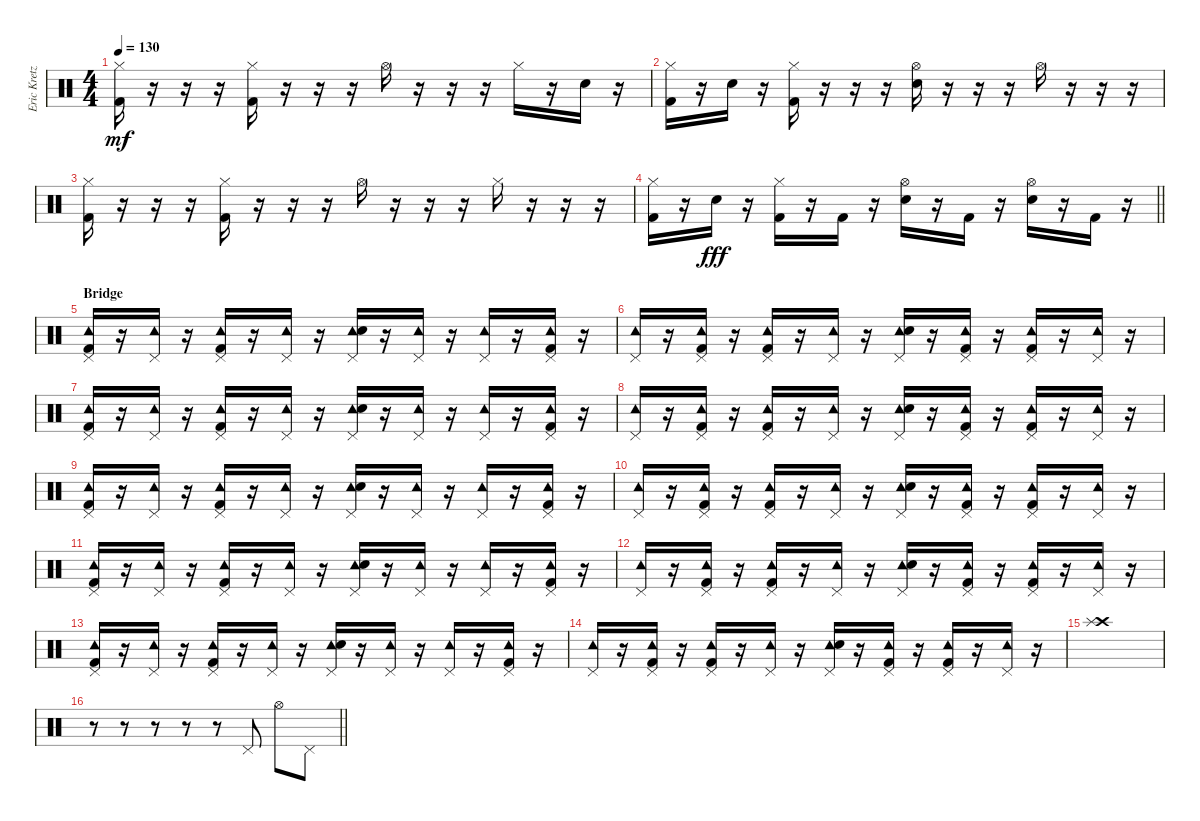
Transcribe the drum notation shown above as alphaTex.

\track ("Eric Kretz (Drums)" "Eric Kretz") {instrument percussion}
\staff {score}
\articulation defaults
\ts (4 4)
\tempo 130
\clef neutral
\ks c
("Hi-Hat (closed)" "Kick (hit) 2").16{dy mf} r.16 r.16 r.16 ("Hi-Hat (closed)" "Kick (hit) 2").16 r.16 r.16 r.16 "Hi-Hat (open)".16 r.16 r.16 r.16 "Hi-Hat (closed)".16 r.16 "Electric Snare (hit)".16 r.16 |
("Hi-Hat (closed)" "Kick (hit) 2").16 r.16 "Electric Snare (hit)".16 r.16 ("Hi-Hat (closed)" "Kick (hit) 2").16 r.16 r.16 r.16 ("Hi-Hat (open)" "Electric Snare (hit)").16 r.16 r.16 r.16 "Hi-Hat (open)".16 r.16 r.16 r.16 |
("Hi-Hat (closed)" "Kick (hit) 2").16 r.16 r.16 r.16 ("Hi-Hat (closed)" "Kick (hit) 2").16 r.16 r.16 r.16 "Hi-Hat (open)".16 r.16 r.16 r.16 "Hi-Hat (closed)".16 r.16 r.16 r.16 |
\barLineRight lightlight
("Hi-Hat (closed)" "Kick (hit) 2").16 r.16 "Electric Snare (hit)".16{dy fff} r.16 ("Hi-Hat (closed)" "Kick (hit) 2").16 r.16 "Kick (hit) 2".16 r.16 ("Hi-Hat (open)" "Electric Snare (hit)").16 r.16 "Kick (hit) 2".16 r.16 ("Hi-Hat (open)" "Electric Snare (hit)").16 r.16 "Kick (hit) 2".16 r.16 |
\section ("" "Bridge ")
("Pedal Hi-Hat (hit)" "Tambourine (hit)" "Kick (hit) 2").16 r.16 ("Pedal Hi-Hat (hit)" "Tambourine (hit)").16 r.16 ("Pedal Hi-Hat (hit)" "Tambourine (hit)" "Kick (hit) 2").16 r.16 ("Pedal Hi-Hat (hit)" "Tambourine (hit)").16 r.16 ("Pedal Hi-Hat (hit)" "Tambourine (hit)" "Electric Snare (hit)").16 r.16 ("Pedal Hi-Hat (hit)" "Tambourine (hit)").16 r.16 ("Pedal Hi-Hat (hit)" "Tambourine (hit)").16 r.16 ("Pedal Hi-Hat (hit)" "Tambourine (hit)" "Kick (hit) 2").16 r.16 |
("Pedal Hi-Hat (hit)" "Tambourine (hit)").16 r.16 ("Pedal Hi-Hat (hit)" "Tambourine (hit)" "Kick (hit) 2").16 r.16 ("Pedal Hi-Hat (hit)" "Tambourine (hit)" "Kick (hit) 2").16 r.16 ("Pedal Hi-Hat (hit)" "Tambourine (hit)").16 r.16 ("Pedal Hi-Hat (hit)" "Tambourine (hit)" "Electric Snare (hit)").16 r.16 ("Pedal Hi-Hat (hit)" "Tambourine (hit)" "Kick (hit) 2").16 r.16 ("Pedal Hi-Hat (hit)" "Tambourine (hit)" "Kick (hit) 2").16 r.16 ("Pedal Hi-Hat (hit)" "Tambourine (hit)").16 r.16 |
("Pedal Hi-Hat (hit)" "Tambourine (hit)" "Kick (hit) 2").16 r.16 ("Pedal Hi-Hat (hit)" "Tambourine (hit)").16 r.16 ("Pedal Hi-Hat (hit)" "Tambourine (hit)" "Kick (hit) 2").16 r.16 ("Pedal Hi-Hat (hit)" "Tambourine (hit)").16 r.16 ("Pedal Hi-Hat (hit)" "Tambourine (hit)" "Electric Snare (hit)").16 r.16 ("Pedal Hi-Hat (hit)" "Tambourine (hit)").16 r.16 ("Pedal Hi-Hat (hit)" "Tambourine (hit)").16 r.16 ("Pedal Hi-Hat (hit)" "Tambourine (hit)" "Kick (hit) 2").16 r.16 |
("Pedal Hi-Hat (hit)" "Tambourine (hit)").16 r.16 ("Pedal Hi-Hat (hit)" "Tambourine (hit)" "Kick (hit) 2").16 r.16 ("Pedal Hi-Hat (hit)" "Tambourine (hit)" "Kick (hit) 2").16 r.16 ("Pedal Hi-Hat (hit)" "Tambourine (hit)").16 r.16 ("Pedal Hi-Hat (hit)" "Tambourine (hit)" "Electric Snare (hit)").16 r.16 ("Pedal Hi-Hat (hit)" "Tambourine (hit)" "Kick (hit) 2").16 r.16 ("Pedal Hi-Hat (hit)" "Tambourine (hit)" "Kick (hit) 2").16 r.16 ("Pedal Hi-Hat (hit)" "Tambourine (hit)").16 r.16 |
("Pedal Hi-Hat (hit)" "Tambourine (hit)" "Kick (hit) 2").16 r.16 ("Pedal Hi-Hat (hit)" "Tambourine (hit)").16 r.16 ("Pedal Hi-Hat (hit)" "Tambourine (hit)" "Kick (hit) 2").16 r.16 ("Pedal Hi-Hat (hit)" "Tambourine (hit)").16 r.16 ("Pedal Hi-Hat (hit)" "Tambourine (hit)" "Electric Snare (hit)").16 r.16 ("Pedal Hi-Hat (hit)" "Tambourine (hit)").16 r.16 ("Pedal Hi-Hat (hit)" "Tambourine (hit)").16 r.16 ("Pedal Hi-Hat (hit)" "Tambourine (hit)" "Kick (hit) 2").16 r.16 |
("Pedal Hi-Hat (hit)" "Tambourine (hit)").16 r.16 ("Pedal Hi-Hat (hit)" "Tambourine (hit)" "Kick (hit) 2").16 r.16 ("Pedal Hi-Hat (hit)" "Tambourine (hit)" "Kick (hit) 2").16 r.16 ("Pedal Hi-Hat (hit)" "Tambourine (hit)").16 r.16 ("Pedal Hi-Hat (hit)" "Tambourine (hit)" "Electric Snare (hit)").16 r.16 ("Pedal Hi-Hat (hit)" "Tambourine (hit)" "Kick (hit) 2").16 r.16 ("Pedal Hi-Hat (hit)" "Tambourine (hit)" "Kick (hit) 2").16 r.16 ("Pedal Hi-Hat (hit)" "Tambourine (hit)").16 r.16 |
("Pedal Hi-Hat (hit)" "Tambourine (hit)" "Kick (hit) 2").16 r.16 ("Pedal Hi-Hat (hit)" "Tambourine (hit)").16 r.16 ("Pedal Hi-Hat (hit)" "Tambourine (hit)" "Kick (hit) 2").16 r.16 ("Pedal Hi-Hat (hit)" "Tambourine (hit)").16 r.16 ("Pedal Hi-Hat (hit)" "Tambourine (hit)" "Electric Snare (hit)").16 r.16 ("Pedal Hi-Hat (hit)" "Tambourine (hit)").16 r.16 ("Pedal Hi-Hat (hit)" "Tambourine (hit)").16 r.16 ("Pedal Hi-Hat (hit)" "Tambourine (hit)" "Kick (hit) 2").16 r.16 |
("Pedal Hi-Hat (hit)" "Tambourine (hit)").16 r.16 ("Pedal Hi-Hat (hit)" "Tambourine (hit)" "Kick (hit) 2").16 r.16 ("Pedal Hi-Hat (hit)" "Tambourine (hit)" "Kick (hit) 2").16 r.16 ("Pedal Hi-Hat (hit)" "Tambourine (hit)").16 r.16 ("Pedal Hi-Hat (hit)" "Tambourine (hit)" "Electric Snare (hit)").16 r.16 ("Pedal Hi-Hat (hit)" "Tambourine (hit)" "Kick (hit) 2").16 r.16 ("Pedal Hi-Hat (hit)" "Tambourine (hit)" "Kick (hit) 2").16 r.16 ("Pedal Hi-Hat (hit)" "Tambourine (hit)").16 r.16 |
("Pedal Hi-Hat (hit)" "Tambourine (hit)" "Kick (hit) 2").16 r.16 ("Pedal Hi-Hat (hit)" "Tambourine (hit)").16 r.16 ("Pedal Hi-Hat (hit)" "Tambourine (hit)" "Kick (hit) 2").16 r.16 ("Pedal Hi-Hat (hit)" "Tambourine (hit)").16 r.16 ("Pedal Hi-Hat (hit)" "Tambourine (hit)" "Electric Snare (hit)").16 r.16 ("Pedal Hi-Hat (hit)" "Tambourine (hit)").16 r.16 ("Pedal Hi-Hat (hit)" "Tambourine (hit)").16 r.16 ("Pedal Hi-Hat (hit)" "Tambourine (hit)" "Kick (hit) 2").16 r.16 |
("Pedal Hi-Hat (hit)" "Tambourine (hit)").16 r.16 ("Pedal Hi-Hat (hit)" "Tambourine (hit)" "Kick (hit) 2").16 r.16 ("Pedal Hi-Hat (hit)" "Tambourine (hit)" "Kick (hit) 2").16 r.16 ("Pedal Hi-Hat (hit)" "Tambourine (hit)").16 r.16 ("Pedal Hi-Hat (hit)" "Tambourine (hit)" "Electric Snare (hit)").16 r.16 ("Pedal Hi-Hat (hit)" "Tambourine (hit)" "Kick (hit) 2").16 r.16 ("Pedal Hi-Hat (hit)" "Tambourine (hit)" "Kick (hit) 2").16 r.16 ("Pedal Hi-Hat (hit)" "Tambourine (hit)").16 r.16 |
("Crash high (hit)" "Splash (hit)").1 |
\barLineRight lightlight
r.8 r.8 r.8 r.8 r.8 "Pedal Hi-Hat (hit)".8 "Hi-Hat (open)".8 "Pedal Hi-Hat (hit)".8
